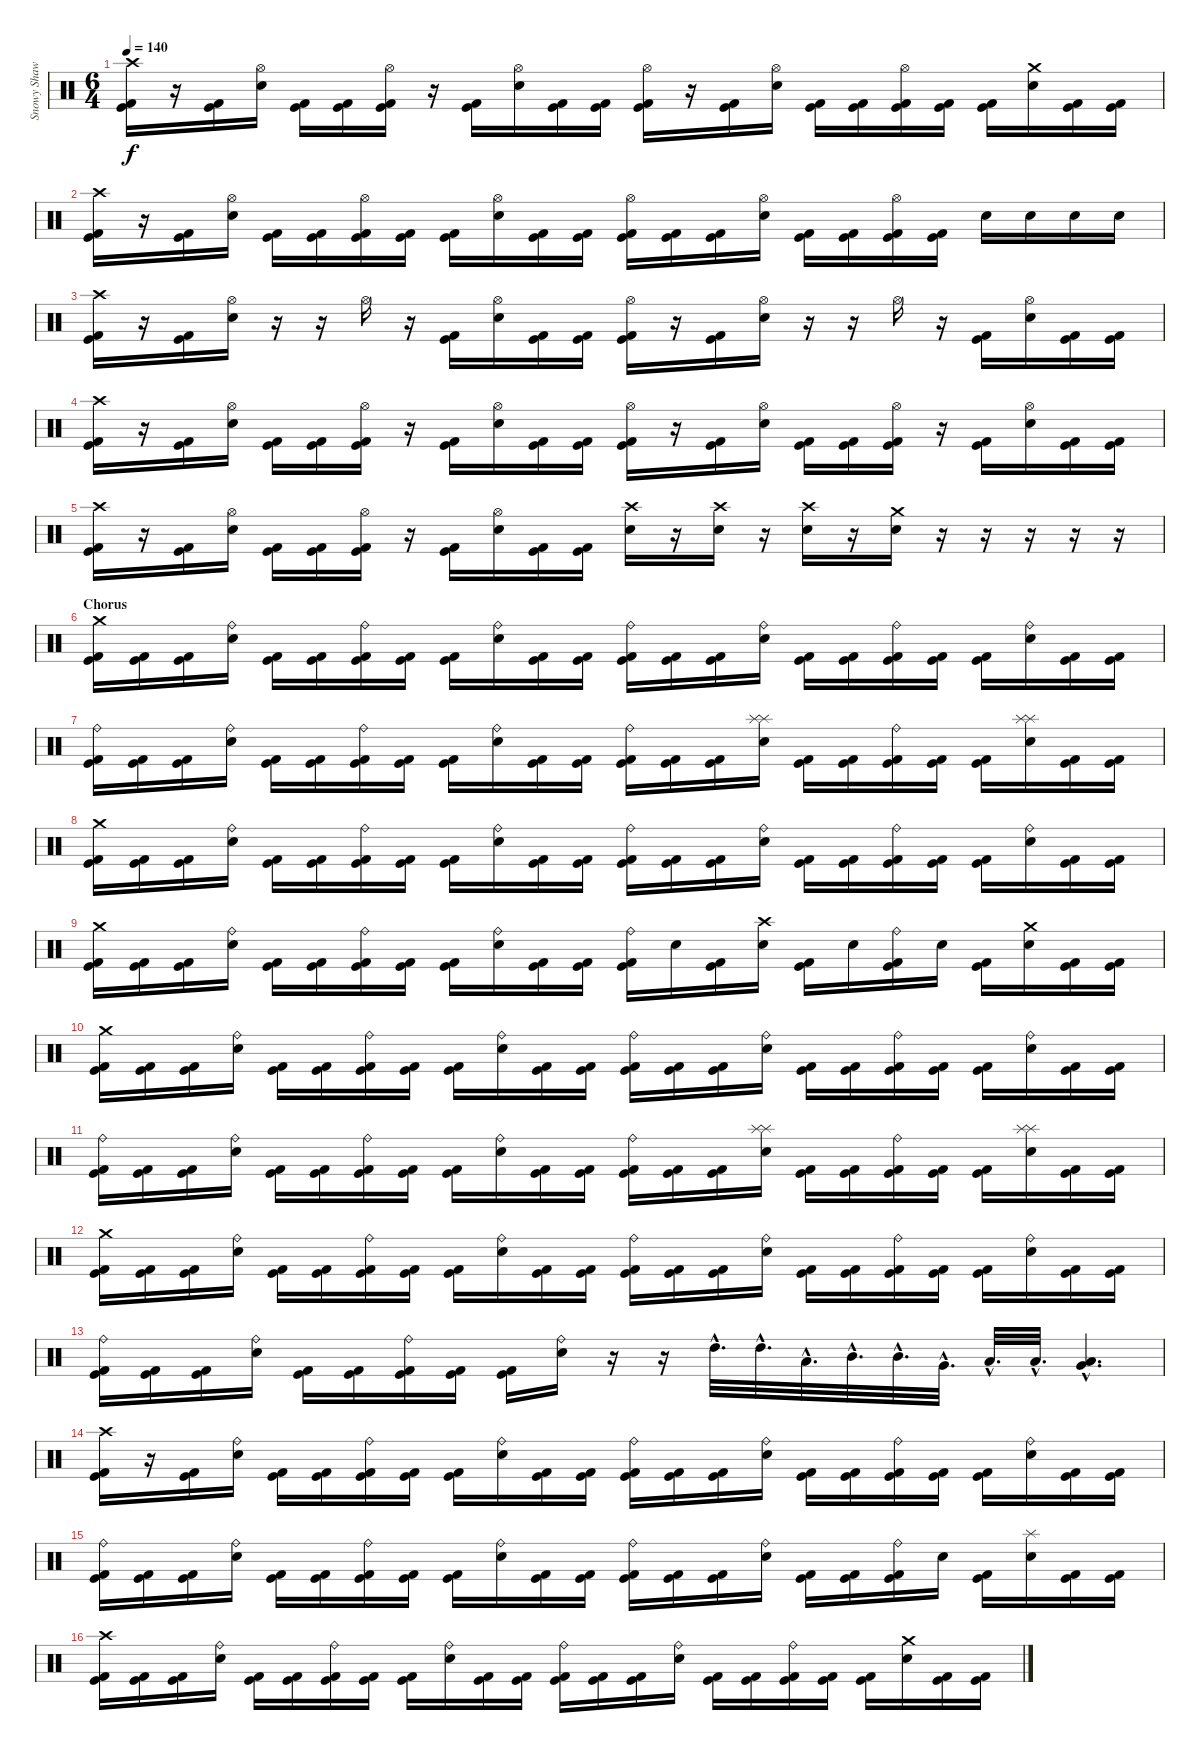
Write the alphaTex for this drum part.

\track ("Snowy Shaw" "Snowy Shaw") {instrument percussion}
\staff {score}
\articulation defaults
\ts (6 4)
\tempo 140
\clef neutral
\ks c
("Crash high (hit)" "Kick (hit) 2" "Kick (hit)").16{dy f} r.16 ("Kick (hit) 2" "Kick (hit)").16 ("Hi-Hat (open)" "Electric Snare (hit)").16 ("Kick (hit)" "Kick (hit) 2").16 ("Kick (hit)" "Kick (hit) 2").16 ("Hi-Hat (open)" "Kick (hit)" "Kick (hit) 2").16 r.16 ("Kick (hit)" "Kick (hit) 2").16 ("Hi-Hat (open)" "Electric Snare (hit)").16 ("Kick (hit)" "Kick (hit) 2").16 ("Kick (hit)" "Kick (hit) 2").16 ("Hi-Hat (open)" "Kick (hit) 2" "Kick (hit)").16 r.16 ("Kick (hit)" "Kick (hit) 2").16 ("Hi-Hat (open)" "Electric Snare (hit)").16 ("Kick (hit)" "Kick (hit) 2").16 ("Kick (hit)" "Kick (hit) 2").16 ("Hi-Hat (open)" "Kick (hit)" "Kick (hit) 2").16 ("Kick (hit)" "Kick (hit) 2").16 ("Kick (hit)" "Kick (hit) 2").16 ("Crash medium (hit)" "Electric Snare (hit)").16 ("Kick (hit)" "Kick (hit) 2").16 ("Kick (hit)" "Kick (hit) 2").16 |
("Crash high (hit)" "Kick (hit) 2" "Kick (hit)").16 r.16 ("Kick (hit) 2" "Kick (hit)").16 ("Hi-Hat (open)" "Electric Snare (hit)").16 ("Kick (hit)" "Kick (hit) 2").16 ("Kick (hit)" "Kick (hit) 2").16 ("Hi-Hat (open)" "Kick (hit)" "Kick (hit) 2").16 ("Kick (hit) 2" "Kick (hit)").16 ("Kick (hit)" "Kick (hit) 2").16 ("Hi-Hat (open)" "Electric Snare (hit)").16 ("Kick (hit)" "Kick (hit) 2").16 ("Kick (hit)" "Kick (hit) 2").16 ("Hi-Hat (open)" "Kick (hit)" "Kick (hit) 2").16 ("Kick (hit) 2" "Kick (hit)").16 ("Kick (hit)" "Kick (hit) 2").16 ("Hi-Hat (open)" "Electric Snare (hit)").16 ("Kick (hit)" "Kick (hit) 2").16 ("Kick (hit)" "Kick (hit) 2").16 ("Hi-Hat (open)" "Kick (hit)" "Kick (hit) 2").16 ("Kick (hit) 2" "Kick (hit)").16 "Electric Snare (hit)".16 "Electric Snare (hit)".16 "Electric Snare (hit)".16 "Electric Snare (hit)".16 |
("Crash high (hit)" "Kick (hit) 2" "Kick (hit)").16 r.16 ("Kick (hit) 2" "Kick (hit)").16 ("Hi-Hat (open)" "Electric Snare (hit)").16 r.16 r.16 "Hi-Hat (open)".16 r.16 ("Kick (hit)" "Kick (hit) 2").16 ("Hi-Hat (open)" "Electric Snare (hit)").16 ("Kick (hit)" "Kick (hit) 2").16 ("Kick (hit)" "Kick (hit) 2").16 ("Hi-Hat (open)" "Kick (hit)" "Kick (hit) 2").16 r.16 ("Kick (hit)" "Kick (hit) 2").16 ("Hi-Hat (open)" "Electric Snare (hit)").16 r.16 r.16 "Hi-Hat (open)".16 r.16 ("Kick (hit)" "Kick (hit) 2").16 ("Hi-Hat (open)" "Electric Snare (hit)").16 ("Kick (hit)" "Kick (hit) 2").16 ("Kick (hit)" "Kick (hit) 2").16 |
("Crash high (hit)" "Kick (hit) 2" "Kick (hit)").16 r.16 ("Kick (hit) 2" "Kick (hit)").16 ("Hi-Hat (open)" "Electric Snare (hit)").16 ("Kick (hit) 2" "Kick (hit)").16 ("Kick (hit) 2" "Kick (hit)").16 ("Hi-Hat (open)" "Kick (hit) 2" "Kick (hit)").16 r.16 ("Kick (hit)" "Kick (hit) 2").16 ("Hi-Hat (open)" "Electric Snare (hit)").16 ("Kick (hit)" "Kick (hit) 2").16 ("Kick (hit)" "Kick (hit) 2").16 ("Hi-Hat (open)" "Kick (hit)" "Kick (hit) 2").16 r.16 ("Kick (hit)" "Kick (hit) 2").16 ("Hi-Hat (open)" "Electric Snare (hit)").16 ("Kick (hit) 2" "Kick (hit)").16 ("Kick (hit) 2" "Kick (hit)").16 ("Hi-Hat (open)" "Kick (hit) 2" "Kick (hit)").16 r.16 ("Kick (hit)" "Kick (hit) 2").16 ("Hi-Hat (open)" "Electric Snare (hit)").16 ("Kick (hit)" "Kick (hit) 2").16 ("Kick (hit)" "Kick (hit) 2").16 |
("Crash high (hit)" "Kick (hit) 2" "Kick (hit)").16 r.16 ("Kick (hit) 2" "Kick (hit)").16 ("Hi-Hat (open)" "Electric Snare (hit)").16 ("Kick (hit) 2" "Kick (hit)").16 ("Kick (hit) 2" "Kick (hit)").16 ("Hi-Hat (open)" "Kick (hit) 2" "Kick (hit)").16 r.16 ("Kick (hit)" "Kick (hit) 2").16 ("Hi-Hat (open)" "Electric Snare (hit)").16 ("Kick (hit)" "Kick (hit) 2").16 ("Kick (hit)" "Kick (hit) 2").16 ("Crash high (hit)" "Electric Snare (hit)").16 r.16 ("Crash high (hit)" "Electric Snare (hit)").16 r.16 ("Crash high (hit)" "Electric Snare (hit)").16 r.16 ("Crash medium (hit)" "Electric Snare (hit)").16 r.16 r.16 r.16 r.16 r.16 |
\section ("" "Chorus")
("Crash medium (hit)" "Kick (hit) 2" "Kick (hit)").16 ("Kick (hit) 2" "Kick (hit)").16 ("Kick (hit) 2" "Kick (hit)").16 ("Ride (bell)" "Electric Snare (hit)").16 ("Kick (hit) 2" "Kick (hit)").16 ("Kick (hit) 2" "Kick (hit)").16 ("Ride (bell)" "Kick (hit) 2" "Kick (hit)").16 ("Kick (hit) 2" "Kick (hit)").16 ("Kick (hit)" "Kick (hit) 2").16 ("Ride (bell)" "Electric Snare (hit)").16 ("Kick (hit)" "Kick (hit) 2").16 ("Kick (hit)" "Kick (hit) 2").16 ("Ride (bell)" "Kick (hit)" "Kick (hit) 2").16 ("Kick (hit) 2" "Kick (hit)").16 ("Kick (hit)" "Kick (hit) 2").16 ("Ride (bell)" "Electric Snare (hit)").16 ("Kick (hit) 2" "Kick (hit)").16 ("Kick (hit) 2" "Kick (hit)").16 ("Ride (bell)" "Kick (hit) 2" "Kick (hit)").16 ("Kick (hit) 2" "Kick (hit)").16 ("Kick (hit)" "Kick (hit) 2").16 ("Ride (bell)" "Electric Snare (hit)").16 ("Kick (hit)" "Kick (hit) 2").16 ("Kick (hit)" "Kick (hit) 2").16 |
("Ride (bell)" "Kick (hit) 2" "Kick (hit)").16 ("Kick (hit) 2" "Kick (hit)").16 ("Kick (hit) 2" "Kick (hit)").16 ("Ride (bell)" "Electric Snare (hit)").16 ("Kick (hit) 2" "Kick (hit)").16 ("Kick (hit) 2" "Kick (hit)").16 ("Ride (bell)" "Kick (hit) 2" "Kick (hit)").16 ("Kick (hit) 2" "Kick (hit)").16 ("Kick (hit)" "Kick (hit) 2").16 ("Ride (bell)" "Electric Snare (hit)").16 ("Kick (hit)" "Kick (hit) 2").16 ("Kick (hit)" "Kick (hit) 2").16 ("Ride (bell)" "Kick (hit)" "Kick (hit) 2").16 ("Kick (hit) 2" "Kick (hit)").16 ("Kick (hit)" "Kick (hit) 2").16 ("Splash (hit)" "Splash (hit)" "Electric Snare (hit)").16 ("Kick (hit) 2" "Kick (hit)").16 ("Kick (hit) 2" "Kick (hit)").16 ("Ride (bell)" "Kick (hit) 2" "Kick (hit)").16 ("Kick (hit) 2" "Kick (hit)").16 ("Kick (hit)" "Kick (hit) 2").16 ("Splash (hit)" "Splash (hit)" "Electric Snare (hit)").16 ("Kick (hit)" "Kick (hit) 2").16 ("Kick (hit)" "Kick (hit) 2").16 |
("Crash medium (hit)" "Kick (hit) 2" "Kick (hit)").16 ("Kick (hit) 2" "Kick (hit)").16 ("Kick (hit) 2" "Kick (hit)").16 ("Ride (bell)" "Electric Snare (hit)").16 ("Kick (hit) 2" "Kick (hit)").16 ("Kick (hit) 2" "Kick (hit)").16 ("Ride (bell)" "Kick (hit) 2" "Kick (hit)").16 ("Kick (hit) 2" "Kick (hit)").16 ("Kick (hit)" "Kick (hit) 2").16 ("Ride (bell)" "Electric Snare (hit)").16 ("Kick (hit)" "Kick (hit) 2").16 ("Kick (hit)" "Kick (hit) 2").16 ("Ride (bell)" "Kick (hit)" "Kick (hit) 2").16 ("Kick (hit) 2" "Kick (hit)").16 ("Kick (hit)" "Kick (hit) 2").16 ("Ride (bell)" "Electric Snare (hit)").16 ("Kick (hit) 2" "Kick (hit)").16 ("Kick (hit) 2" "Kick (hit)").16 ("Ride (bell)" "Kick (hit) 2" "Kick (hit)").16 ("Kick (hit) 2" "Kick (hit)").16 ("Kick (hit)" "Kick (hit) 2").16 ("Ride (bell)" "Electric Snare (hit)").16 ("Kick (hit)" "Kick (hit) 2").16 ("Kick (hit)" "Kick (hit) 2").16 |
("Crash medium (hit)" "Kick (hit) 2" "Kick (hit)").16 ("Kick (hit) 2" "Kick (hit)").16 ("Kick (hit) 2" "Kick (hit)").16 ("Ride (bell)" "Electric Snare (hit)").16 ("Kick (hit) 2" "Kick (hit)").16 ("Kick (hit) 2" "Kick (hit)").16 ("Ride (bell)" "Kick (hit) 2" "Kick (hit)").16 ("Kick (hit) 2" "Kick (hit)").16 ("Kick (hit)" "Kick (hit) 2").16 ("Ride (bell)" "Electric Snare (hit)").16 ("Kick (hit)" "Kick (hit) 2").16 ("Kick (hit)" "Kick (hit) 2").16 ("Ride (bell)" "Kick (hit)" "Kick (hit) 2").16 "Electric Snare (hit)".16 ("Kick (hit)" "Kick (hit) 2").16 ("Crash high (hit)" "Electric Snare (hit)").16 ("Kick (hit) 2" "Kick (hit)").16 "Electric Snare (hit)".16 ("Ride (bell)" "Kick (hit) 2" "Kick (hit)").16 "Electric Snare (hit)".16 ("Kick (hit)" "Kick (hit) 2").16 ("Crash medium (hit)" "Electric Snare (hit)").16 ("Kick (hit)" "Kick (hit) 2").16 ("Kick (hit)" "Kick (hit) 2").16 |
("Crash medium (hit)" "Kick (hit) 2" "Kick (hit)").16 ("Kick (hit) 2" "Kick (hit)").16 ("Kick (hit) 2" "Kick (hit)").16 ("Ride (bell)" "Electric Snare (hit)").16 ("Kick (hit) 2" "Kick (hit)").16 ("Kick (hit) 2" "Kick (hit)").16 ("Ride (bell)" "Kick (hit) 2" "Kick (hit)").16 ("Kick (hit) 2" "Kick (hit)").16 ("Kick (hit)" "Kick (hit) 2").16 ("Ride (bell)" "Electric Snare (hit)").16 ("Kick (hit)" "Kick (hit) 2").16 ("Kick (hit)" "Kick (hit) 2").16 ("Ride (bell)" "Kick (hit)" "Kick (hit) 2").16 ("Kick (hit) 2" "Kick (hit)").16 ("Kick (hit)" "Kick (hit) 2").16 ("Ride (bell)" "Electric Snare (hit)").16 ("Kick (hit) 2" "Kick (hit)").16 ("Kick (hit) 2" "Kick (hit)").16 ("Ride (bell)" "Kick (hit) 2" "Kick (hit)").16 ("Kick (hit) 2" "Kick (hit)").16 ("Kick (hit)" "Kick (hit) 2").16 ("Ride (bell)" "Electric Snare (hit)").16 ("Kick (hit)" "Kick (hit) 2").16 ("Kick (hit)" "Kick (hit) 2").16 |
("Ride (bell)" "Kick (hit) 2" "Kick (hit)").16 ("Kick (hit) 2" "Kick (hit)").16 ("Kick (hit) 2" "Kick (hit)").16 ("Ride (bell)" "Electric Snare (hit)").16 ("Kick (hit) 2" "Kick (hit)").16 ("Kick (hit) 2" "Kick (hit)").16 ("Ride (bell)" "Kick (hit) 2" "Kick (hit)").16 ("Kick (hit) 2" "Kick (hit)").16 ("Kick (hit)" "Kick (hit) 2").16 ("Ride (bell)" "Electric Snare (hit)").16 ("Kick (hit)" "Kick (hit) 2").16 ("Kick (hit)" "Kick (hit) 2").16 ("Ride (bell)" "Kick (hit)" "Kick (hit) 2").16 ("Kick (hit) 2" "Kick (hit)").16 ("Kick (hit)" "Kick (hit) 2").16 ("Splash (hit)" "Splash (hit)" "Electric Snare (hit)").16 ("Kick (hit) 2" "Kick (hit)").16 ("Kick (hit) 2" "Kick (hit)").16 ("Ride (bell)" "Kick (hit) 2" "Kick (hit)").16 ("Kick (hit) 2" "Kick (hit)").16 ("Kick (hit)" "Kick (hit) 2").16 ("Splash (hit)" "Splash (hit)" "Electric Snare (hit)").16 ("Kick (hit)" "Kick (hit) 2").16 ("Kick (hit)" "Kick (hit) 2").16 |
("Crash medium (hit)" "Kick (hit) 2" "Kick (hit)").16 ("Kick (hit) 2" "Kick (hit)").16 ("Kick (hit) 2" "Kick (hit)").16 ("Ride (bell)" "Electric Snare (hit)").16 ("Kick (hit) 2" "Kick (hit)").16 ("Kick (hit) 2" "Kick (hit)").16 ("Ride (bell)" "Kick (hit) 2" "Kick (hit)").16 ("Kick (hit) 2" "Kick (hit)").16 ("Kick (hit)" "Kick (hit) 2").16 ("Ride (bell)" "Electric Snare (hit)").16 ("Kick (hit)" "Kick (hit) 2").16 ("Kick (hit)" "Kick (hit) 2").16 ("Ride (bell)" "Kick (hit)" "Kick (hit) 2").16 ("Kick (hit) 2" "Kick (hit)").16 ("Kick (hit)" "Kick (hit) 2").16 ("Ride (bell)" "Electric Snare (hit)").16 ("Kick (hit) 2" "Kick (hit)").16 ("Kick (hit) 2" "Kick (hit)").16 ("Ride (bell)" "Kick (hit) 2" "Kick (hit)").16 ("Kick (hit) 2" "Kick (hit)").16 ("Kick (hit)" "Kick (hit) 2").16 ("Ride (bell)" "Electric Snare (hit)").16 ("Kick (hit)" "Kick (hit) 2").16 ("Kick (hit)" "Kick (hit) 2").16 |
("Ride (bell)" "Kick (hit) 2" "Kick (hit)").16 ("Kick (hit) 2" "Kick (hit)").16 ("Kick (hit) 2" "Kick (hit)").16 ("Ride (bell)" "Electric Snare (hit)").16 ("Kick (hit) 2" "Kick (hit)").16 ("Kick (hit) 2" "Kick (hit)").16 ("Ride (bell)" "Kick (hit) 2" "Kick (hit)").16 ("Kick (hit) 2" "Kick (hit)").16 ("Kick (hit)" "Kick (hit) 2").16 ("Ride (bell)" "Electric Snare (hit)").16 r.16 r.16 "High Tom (hit)"{hac}.32{d} "High Tom (hit)"{hac}.32{d} "Low Tom (hit)"{hac}.32{d} "Mid Tom (hit)"{hac}.32{d} "Mid Tom (hit)"{hac}.32{d} "Very Low Tom (hit)"{hac}.32{d} "Low Tom (hit)"{hac}.32{d} "Low Tom (hit)"{hac}.32{d} ("Very Low Tom (hit)"{hac} "Low Floor Tom (hit)"{hac}).4{d} |
("Crash high (hit)" "Kick (hit) 2" "Kick (hit)").16 r.16 ("Kick (hit) 2" "Kick (hit)").16 ("Ride (bell)" "Electric Snare (hit)").16 ("Kick (hit)" "Kick (hit) 2").16 ("Kick (hit)" "Kick (hit) 2").16 ("Ride (bell)" "Kick (hit)" "Kick (hit) 2").16 ("Kick (hit)" "Kick (hit) 2").16 ("Kick (hit)" "Kick (hit) 2").16 ("Ride (bell)" "Electric Snare (hit)").16 ("Kick (hit)" "Kick (hit) 2").16 ("Kick (hit)" "Kick (hit) 2").16 ("Ride (bell)" "Kick (hit)" "Kick (hit) 2").16 ("Kick (hit)" "Kick (hit) 2").16 ("Kick (hit)" "Kick (hit) 2").16 ("Ride (bell)" "Electric Snare (hit)").16 ("Kick (hit)" "Kick (hit) 2").16 ("Kick (hit)" "Kick (hit) 2").16 ("Ride (bell)" "Kick (hit)" "Kick (hit) 2").16 ("Kick (hit)" "Kick (hit) 2").16 ("Kick (hit)" "Kick (hit) 2").16 ("Ride (bell)" "Electric Snare (hit)").16 ("Kick (hit)" "Kick (hit) 2").16 ("Kick (hit)" "Kick (hit) 2").16 |
("Ride (bell)" "Kick (hit) 2" "Kick (hit)").16 ("Kick (hit) 2" "Kick (hit)").16 ("Kick (hit) 2" "Kick (hit)").16 ("Ride (bell)" "Electric Snare (hit)").16 ("Kick (hit)" "Kick (hit) 2").16 ("Kick (hit)" "Kick (hit) 2").16 ("Ride (bell)" "Kick (hit)" "Kick (hit) 2").16 ("Kick (hit)" "Kick (hit) 2").16 ("Kick (hit)" "Kick (hit) 2").16 ("Ride (bell)" "Electric Snare (hit)").16 ("Kick (hit)" "Kick (hit) 2").16 ("Kick (hit)" "Kick (hit) 2").16 ("Ride (bell)" "Kick (hit)" "Kick (hit) 2").16 ("Kick (hit)" "Kick (hit) 2").16 ("Kick (hit)" "Kick (hit) 2").16 ("Ride (bell)" "Electric Snare (hit)").16 ("Kick (hit)" "Kick (hit) 2").16 ("Kick (hit)" "Kick (hit) 2").16 ("Ride (bell)" "Kick (hit)" "Kick (hit) 2").16 "Electric Snare (hit)".16 ("Kick (hit)" "Kick (hit) 2").16 ("Splash (hit)" "Electric Snare (hit)").16 ("Kick (hit)" "Kick (hit) 2").16 ("Kick (hit)" "Kick (hit) 2").16 |
("Crash high (hit)" "Kick (hit) 2" "Kick (hit)").16 ("Kick (hit) 2" "Kick (hit)").16 ("Kick (hit) 2" "Kick (hit)").16 ("Ride (bell)" "Electric Snare (hit)").16 ("Kick (hit)" "Kick (hit) 2").16 ("Kick (hit)" "Kick (hit) 2").16 ("Ride (bell)" "Kick (hit)" "Kick (hit) 2").16 ("Kick (hit)" "Kick (hit) 2").16 ("Kick (hit)" "Kick (hit) 2").16 ("Ride (bell)" "Electric Snare (hit)").16 ("Kick (hit)" "Kick (hit) 2").16 ("Kick (hit)" "Kick (hit) 2").16 ("Ride (bell)" "Kick (hit)" "Kick (hit) 2").16 ("Kick (hit)" "Kick (hit) 2").16 ("Kick (hit)" "Kick (hit) 2").16 ("Ride (bell)" "Electric Snare (hit)").16 ("Kick (hit)" "Kick (hit) 2").16 ("Kick (hit)" "Kick (hit) 2").16 ("Ride (bell)" "Kick (hit)" "Kick (hit) 2").16 ("Kick (hit)" "Kick (hit) 2").16 ("Kick (hit)" "Kick (hit) 2").16 ("Crash medium (hit)" "Electric Snare (hit)").16 ("Kick (hit)" "Kick (hit) 2").16 ("Kick (hit)" "Kick (hit) 2").16
